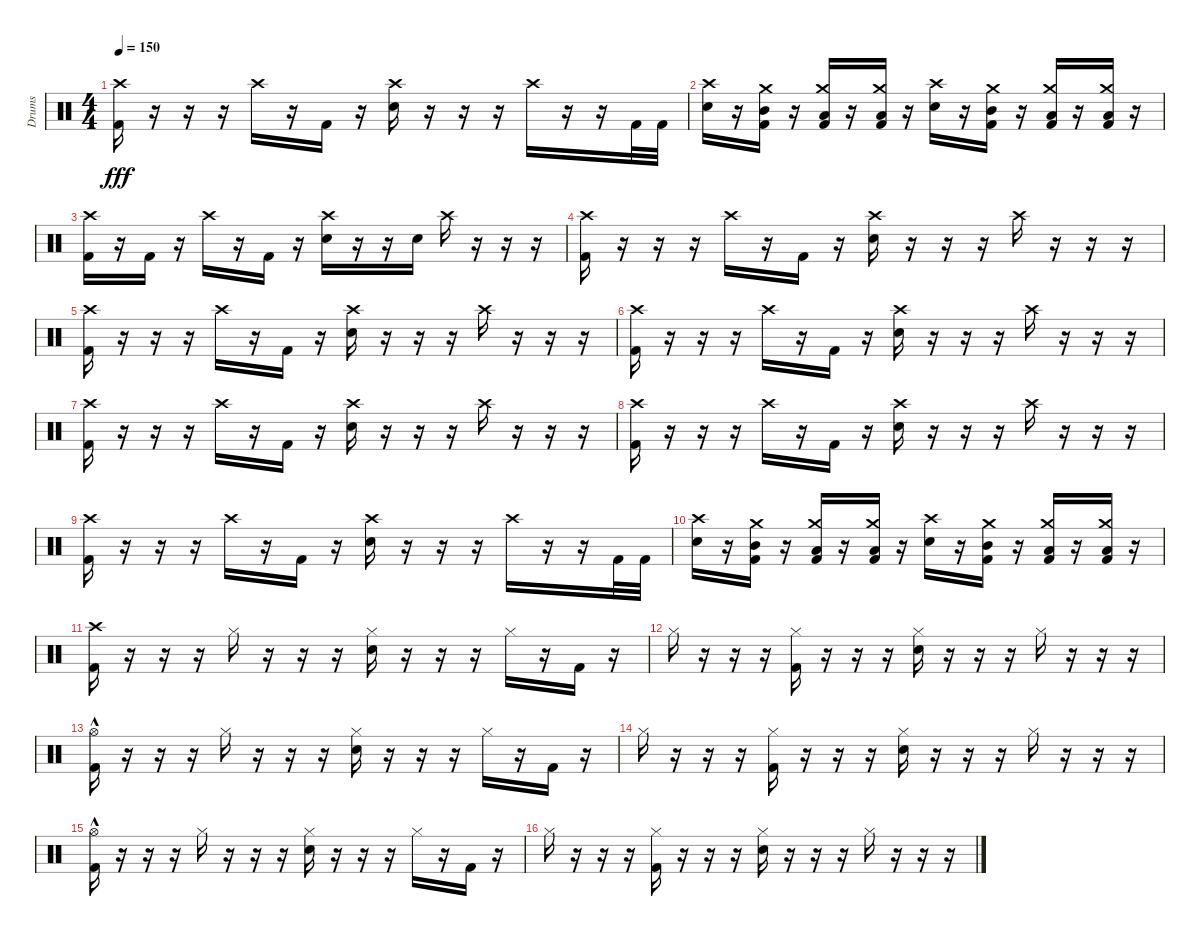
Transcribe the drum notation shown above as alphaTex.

\track ("Drums" "Drums") {instrument percussion}
\staff {score}
\articulation defaults
\ts (4 4)
\tempo 150
\clef neutral
\ks c
("Crash high (hit)" "Kick (hit) 2").16{dy fff} r.16 r.16 r.16 "Crash high (hit)".16 r.16 "Kick (hit) 2".16 r.16 ("Crash high (hit)" "Electric Snare (hit)").16 r.16 r.16 r.16 "Crash high (hit)".16 r.16 r.16 "Kick (hit) 2".32 "Kick (hit) 2".32 |
("Crash high (hit)" "Electric Snare (hit)").16 r.16 ("Crash medium (hit)" "Mid Tom (hit)" "Kick (hit) 2").16 r.16 ("Crash medium (hit)" "Low Tom (hit)" "Kick (hit) 2").16 r.16 ("Crash medium (hit)" "Low Tom (hit)" "Kick (hit) 2").16 r.16 ("Crash high (hit)" "Electric Snare (hit)").16 r.16 ("Crash medium (hit)" "Mid Tom (hit)" "Kick (hit) 2").16 r.16 ("Crash medium (hit)" "Low Tom (hit)" "Kick (hit) 2").16 r.16 ("Crash medium (hit)" "Low Tom (hit)" "Kick (hit) 2").16 r.16 |
("Crash high (hit)" "Kick (hit) 2").16 r.16 "Kick (hit) 2".16 r.16 "Crash high (hit)".16 r.16 "Kick (hit) 2".16 r.16 ("Crash high (hit)" "Electric Snare (hit)").16 r.16 r.16 "Electric Snare (hit)".16 "Crash high (hit)".16 r.16 r.16 r.16 |
("Crash high (hit)" "Kick (hit) 2").16 r.16 r.16 r.16 "Crash high (hit)".16 r.16 "Kick (hit) 2".16 r.16 ("Crash high (hit)" "Electric Snare (hit)").16 r.16 r.16 r.16 "Crash high (hit)".16 r.16 r.16 r.16 |
("Crash high (hit)" "Kick (hit) 2").16 r.16 r.16 r.16 "Crash high (hit)".16 r.16 "Kick (hit) 2".16 r.16 ("Crash high (hit)" "Electric Snare (hit)").16 r.16 r.16 r.16 "Crash high (hit)".16 r.16 r.16 r.16 |
("Crash high (hit)" "Kick (hit) 2").16 r.16 r.16 r.16 "Crash high (hit)".16 r.16 "Kick (hit) 2".16 r.16 ("Crash high (hit)" "Electric Snare (hit)").16 r.16 r.16 r.16 "Crash high (hit)".16 r.16 r.16 r.16 |
("Crash high (hit)" "Kick (hit) 2").16 r.16 r.16 r.16 "Crash high (hit)".16 r.16 "Kick (hit) 2".16 r.16 ("Crash high (hit)" "Electric Snare (hit)").16 r.16 r.16 r.16 "Crash high (hit)".16 r.16 r.16 r.16 |
("Crash high (hit)" "Kick (hit) 2").16 r.16 r.16 r.16 "Crash high (hit)".16 r.16 "Kick (hit) 2".16 r.16 ("Crash high (hit)" "Electric Snare (hit)").16 r.16 r.16 r.16 "Crash high (hit)".16 r.16 r.16 r.16 |
("Crash high (hit)" "Kick (hit) 2").16 r.16 r.16 r.16 "Crash high (hit)".16 r.16 "Kick (hit) 2".16 r.16 ("Crash high (hit)" "Electric Snare (hit)").16 r.16 r.16 r.16 "Crash high (hit)".16 r.16 r.16 "Kick (hit) 2".32 "Kick (hit) 2".32 |
("Crash high (hit)" "Electric Snare (hit)").16 r.16 ("Crash medium (hit)" "Mid Tom (hit)" "Kick (hit) 2").16 r.16 ("Crash medium (hit)" "Low Tom (hit)" "Kick (hit) 2").16 r.16 ("Crash medium (hit)" "Low Tom (hit)" "Kick (hit) 2").16 r.16 ("Crash high (hit)" "Electric Snare (hit)").16 r.16 ("Crash medium (hit)" "Mid Tom (hit)" "Kick (hit) 2").16 r.16 ("Crash medium (hit)" "Low Tom (hit)" "Kick (hit) 2").16 r.16 ("Crash medium (hit)" "Low Tom (hit)" "Kick (hit) 2").16 r.16 |
("Crash high (hit)" "Kick (hit) 2").16 r.16 r.16 r.16 "Hi-Hat (closed)".16 r.16 r.16 r.16 ("Hi-Hat (closed)" "Electric Snare (hit)").16 r.16 r.16 r.16 "Hi-Hat (closed)".16 r.16 "Kick (hit) 2".16 r.16 |
"Hi-Hat (closed)".16 r.16 r.16 r.16 ("Hi-Hat (closed)" "Kick (hit) 2").16 r.16 r.16 r.16 ("Hi-Hat (closed)" "Electric Snare (hit)").16 r.16 r.16 r.16 "Hi-Hat (closed)".16 r.16 r.16 r.16 |
("Hi-Hat (open)"{hac} "Kick (hit) 2").16 r.16 r.16 r.16 "Hi-Hat (closed)".16 r.16 r.16 r.16 ("Hi-Hat (closed)" "Electric Snare (hit)").16 r.16 r.16 r.16 "Hi-Hat (closed)".16 r.16 "Kick (hit) 2".16 r.16 |
"Hi-Hat (closed)".16 r.16 r.16 r.16 ("Hi-Hat (closed)" "Kick (hit) 2").16 r.16 r.16 r.16 ("Hi-Hat (closed)" "Electric Snare (hit)").16 r.16 r.16 r.16 "Hi-Hat (closed)".16 r.16 r.16 r.16 |
("Hi-Hat (open)"{hac} "Kick (hit) 2").16 r.16 r.16 r.16 "Hi-Hat (closed)".16 r.16 r.16 r.16 ("Hi-Hat (closed)" "Electric Snare (hit)").16 r.16 r.16 r.16 "Hi-Hat (closed)".16 r.16 "Kick (hit) 2".16 r.16 |
"Hi-Hat (closed)".16 r.16 r.16 r.16 ("Hi-Hat (closed)" "Kick (hit) 2").16 r.16 r.16 r.16 ("Hi-Hat (closed)" "Electric Snare (hit)").16 r.16 r.16 r.16 "Hi-Hat (closed)".16 r.16 r.16 r.16
